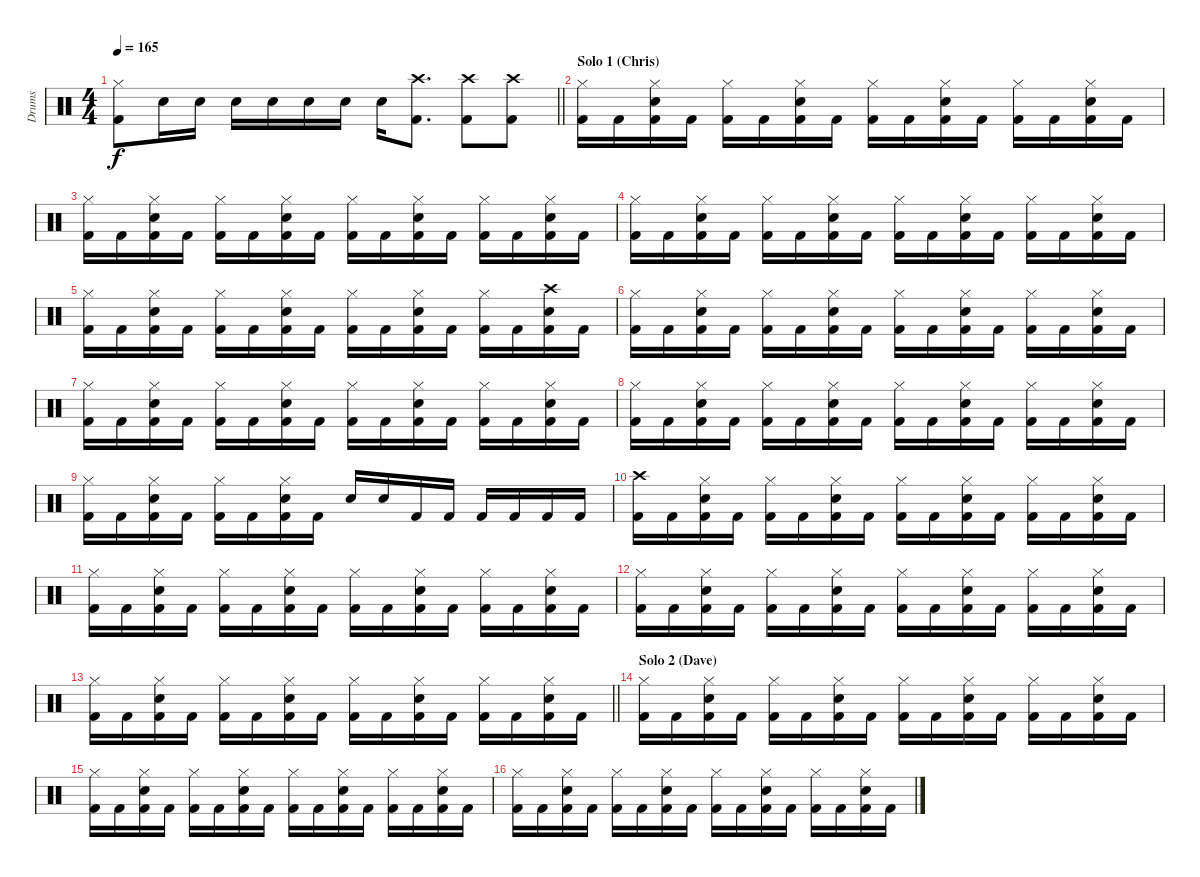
\track ("Drums" "Drums") {instrument percussion}
\staff {score}
\articulation defaults
\ts (4 4)
\tempo 165
\clef neutral
\barLineRight lightlight
\ks c
("Hi-Hat (closed)" "Kick (hit) 2").8{dy f} "Snare (hit) 2".16 "Snare (hit) 2".16 "Snare (hit) 2".16 "Snare (hit) 2".16 "Snare (hit) 2".16 "Snare (hit) 2".16 "Snare (hit) 2".16 ("Crash high (hit)" "Kick (hit) 2").8{d} ("Crash high (hit)" "Kick (hit) 2").8 ("Crash high (hit)" "Kick (hit) 2").8 |
\section ("" "Solo 1 (Chris)")
("Hi-Hat (closed)" "Kick (hit) 2").16 "Kick (hit) 2".16 ("Hi-Hat (closed)" "Snare (hit) 2" "Kick (hit) 2").16 "Kick (hit) 2".16 ("Hi-Hat (closed)" "Kick (hit) 2").16 "Kick (hit) 2".16 ("Hi-Hat (closed)" "Snare (hit) 2" "Kick (hit) 2").16 "Kick (hit) 2".16 ("Hi-Hat (closed)" "Kick (hit) 2").16 "Kick (hit) 2".16 ("Hi-Hat (closed)" "Snare (hit) 2" "Kick (hit) 2").16 "Kick (hit) 2".16 ("Hi-Hat (closed)" "Kick (hit) 2").16 "Kick (hit) 2".16 ("Hi-Hat (closed)" "Snare (hit) 2" "Kick (hit) 2").16 "Kick (hit) 2".16 |
("Hi-Hat (closed)" "Kick (hit) 2").16 "Kick (hit) 2".16 ("Hi-Hat (closed)" "Snare (hit) 2" "Kick (hit) 2").16 "Kick (hit) 2".16 ("Hi-Hat (closed)" "Kick (hit) 2").16 "Kick (hit) 2".16 ("Hi-Hat (closed)" "Snare (hit) 2" "Kick (hit) 2").16 "Kick (hit) 2".16 ("Hi-Hat (closed)" "Kick (hit) 2").16 "Kick (hit) 2".16 ("Hi-Hat (closed)" "Snare (hit) 2" "Kick (hit) 2").16 "Kick (hit) 2".16 ("Hi-Hat (closed)" "Kick (hit) 2").16 "Kick (hit) 2".16 ("Hi-Hat (closed)" "Snare (hit) 2" "Kick (hit) 2").16 "Kick (hit) 2".16 |
("Hi-Hat (closed)" "Kick (hit) 2").16 "Kick (hit) 2".16 ("Hi-Hat (closed)" "Snare (hit) 2" "Kick (hit) 2").16 "Kick (hit) 2".16 ("Hi-Hat (closed)" "Kick (hit) 2").16 "Kick (hit) 2".16 ("Hi-Hat (closed)" "Snare (hit) 2" "Kick (hit) 2").16 "Kick (hit) 2".16 ("Hi-Hat (closed)" "Kick (hit) 2").16 "Kick (hit) 2".16 ("Hi-Hat (closed)" "Snare (hit) 2" "Kick (hit) 2").16 "Kick (hit) 2".16 ("Hi-Hat (closed)" "Kick (hit) 2").16 "Kick (hit) 2".16 ("Hi-Hat (closed)" "Snare (hit) 2" "Kick (hit) 2").16 "Kick (hit) 2".16 |
("Hi-Hat (closed)" "Kick (hit) 2").16 "Kick (hit) 2".16 ("Hi-Hat (closed)" "Snare (hit) 2" "Kick (hit) 2").16 "Kick (hit) 2".16 ("Hi-Hat (closed)" "Kick (hit) 2").16 "Kick (hit) 2".16 ("Hi-Hat (closed)" "Snare (hit) 2" "Kick (hit) 2").16 "Kick (hit) 2".16 ("Hi-Hat (closed)" "Kick (hit) 2").16 "Kick (hit) 2".16 ("Hi-Hat (closed)" "Snare (hit) 2" "Kick (hit) 2").16 "Kick (hit) 2".16 ("Hi-Hat (closed)" "Kick (hit) 2").16 "Kick (hit) 2".16 ("Crash high (hit)" "Snare (hit) 2" "Kick (hit) 2").16 "Kick (hit) 2".16 |
("Hi-Hat (closed)" "Kick (hit) 2").16 "Kick (hit) 2".16 ("Hi-Hat (closed)" "Snare (hit) 2" "Kick (hit) 2").16 "Kick (hit) 2".16 ("Hi-Hat (closed)" "Kick (hit) 2").16 "Kick (hit) 2".16 ("Hi-Hat (closed)" "Snare (hit) 2" "Kick (hit) 2").16 "Kick (hit) 2".16 ("Hi-Hat (closed)" "Kick (hit) 2").16 "Kick (hit) 2".16 ("Hi-Hat (closed)" "Snare (hit) 2" "Kick (hit) 2").16 "Kick (hit) 2".16 ("Hi-Hat (closed)" "Kick (hit) 2").16 "Kick (hit) 2".16 ("Hi-Hat (closed)" "Snare (hit) 2" "Kick (hit) 2").16 "Kick (hit) 2".16 |
("Hi-Hat (closed)" "Kick (hit) 2").16 "Kick (hit) 2".16 ("Hi-Hat (closed)" "Snare (hit) 2" "Kick (hit) 2").16 "Kick (hit) 2".16 ("Hi-Hat (closed)" "Kick (hit) 2").16 "Kick (hit) 2".16 ("Hi-Hat (closed)" "Snare (hit) 2" "Kick (hit) 2").16 "Kick (hit) 2".16 ("Hi-Hat (closed)" "Kick (hit) 2").16 "Kick (hit) 2".16 ("Hi-Hat (closed)" "Snare (hit) 2" "Kick (hit) 2").16 "Kick (hit) 2".16 ("Hi-Hat (closed)" "Kick (hit) 2").16 "Kick (hit) 2".16 ("Hi-Hat (closed)" "Snare (hit) 2" "Kick (hit) 2").16 "Kick (hit) 2".16 |
("Hi-Hat (closed)" "Kick (hit) 2").16 "Kick (hit) 2".16 ("Hi-Hat (closed)" "Snare (hit) 2" "Kick (hit) 2").16 "Kick (hit) 2".16 ("Hi-Hat (closed)" "Kick (hit) 2").16 "Kick (hit) 2".16 ("Hi-Hat (closed)" "Snare (hit) 2" "Kick (hit) 2").16 "Kick (hit) 2".16 ("Hi-Hat (closed)" "Kick (hit) 2").16 "Kick (hit) 2".16 ("Hi-Hat (closed)" "Snare (hit) 2" "Kick (hit) 2").16 "Kick (hit) 2".16 ("Hi-Hat (closed)" "Kick (hit) 2").16 "Kick (hit) 2".16 ("Hi-Hat (closed)" "Snare (hit) 2" "Kick (hit) 2").16 "Kick (hit) 2".16 |
("Hi-Hat (closed)" "Kick (hit) 2").16 "Kick (hit) 2".16 ("Hi-Hat (closed)" "Snare (hit) 2" "Kick (hit) 2").16 "Kick (hit) 2".16 ("Hi-Hat (closed)" "Kick (hit) 2").16 "Kick (hit) 2".16 ("Hi-Hat (closed)" "Snare (hit) 2" "Kick (hit) 2").16 "Kick (hit) 2".16 "Snare (hit) 2".16 "Snare (hit) 2".16 "Kick (hit) 2".16 "Kick (hit) 2".16 "Kick (hit) 2".16 "Kick (hit) 2".16 "Kick (hit) 2".16 "Kick (hit) 2".16 |
("Crash high (hit)" "Kick (hit) 2").16 "Kick (hit) 2".16 ("Hi-Hat (closed)" "Snare (hit) 2" "Kick (hit) 2").16 "Kick (hit) 2".16 ("Hi-Hat (closed)" "Kick (hit) 2").16 "Kick (hit) 2".16 ("Hi-Hat (closed)" "Snare (hit) 2" "Kick (hit) 2").16 "Kick (hit) 2".16 ("Hi-Hat (closed)" "Kick (hit) 2").16 "Kick (hit) 2".16 ("Hi-Hat (closed)" "Snare (hit) 2" "Kick (hit) 2").16 "Kick (hit) 2".16 ("Hi-Hat (closed)" "Kick (hit) 2").16 "Kick (hit) 2".16 ("Hi-Hat (closed)" "Snare (hit) 2" "Kick (hit) 2").16 "Kick (hit) 2".16 |
("Hi-Hat (closed)" "Kick (hit) 2").16 "Kick (hit) 2".16 ("Hi-Hat (closed)" "Snare (hit) 2" "Kick (hit) 2").16 "Kick (hit) 2".16 ("Hi-Hat (closed)" "Kick (hit) 2").16 "Kick (hit) 2".16 ("Hi-Hat (closed)" "Snare (hit) 2" "Kick (hit) 2").16 "Kick (hit) 2".16 ("Hi-Hat (closed)" "Kick (hit) 2").16 "Kick (hit) 2".16 ("Hi-Hat (closed)" "Snare (hit) 2" "Kick (hit) 2").16 "Kick (hit) 2".16 ("Hi-Hat (closed)" "Kick (hit) 2").16 "Kick (hit) 2".16 ("Hi-Hat (closed)" "Snare (hit) 2" "Kick (hit) 2").16 "Kick (hit) 2".16 |
("Hi-Hat (closed)" "Kick (hit) 2").16 "Kick (hit) 2".16 ("Hi-Hat (closed)" "Snare (hit) 2" "Kick (hit) 2").16 "Kick (hit) 2".16 ("Hi-Hat (closed)" "Kick (hit) 2").16 "Kick (hit) 2".16 ("Hi-Hat (closed)" "Snare (hit) 2" "Kick (hit) 2").16 "Kick (hit) 2".16 ("Hi-Hat (closed)" "Kick (hit) 2").16 "Kick (hit) 2".16 ("Hi-Hat (closed)" "Snare (hit) 2" "Kick (hit) 2").16 "Kick (hit) 2".16 ("Hi-Hat (closed)" "Kick (hit) 2").16 "Kick (hit) 2".16 ("Hi-Hat (closed)" "Snare (hit) 2" "Kick (hit) 2").16 "Kick (hit) 2".16 |
\barLineRight lightlight
("Hi-Hat (closed)" "Kick (hit) 2").16 "Kick (hit) 2".16 ("Hi-Hat (closed)" "Snare (hit) 2" "Kick (hit) 2").16 "Kick (hit) 2".16 ("Hi-Hat (closed)" "Kick (hit) 2").16 "Kick (hit) 2".16 ("Hi-Hat (closed)" "Snare (hit) 2" "Kick (hit) 2").16 "Kick (hit) 2".16 ("Hi-Hat (closed)" "Kick (hit) 2").16 "Kick (hit) 2".16 ("Hi-Hat (closed)" "Snare (hit) 2" "Kick (hit) 2").16 "Kick (hit) 2".16 ("Hi-Hat (closed)" "Kick (hit) 2").16 "Kick (hit) 2".16 ("Hi-Hat (closed)" "Snare (hit) 2" "Kick (hit) 2").16 "Kick (hit) 2".16 |
\section ("" "Solo 2 (Dave)")
("Hi-Hat (closed)" "Kick (hit) 2").16 "Kick (hit) 2".16 ("Hi-Hat (closed)" "Snare (hit) 2" "Kick (hit) 2").16 "Kick (hit) 2".16 ("Hi-Hat (closed)" "Kick (hit) 2").16 "Kick (hit) 2".16 ("Hi-Hat (closed)" "Snare (hit) 2" "Kick (hit) 2").16 "Kick (hit) 2".16 ("Hi-Hat (closed)" "Kick (hit) 2").16 "Kick (hit) 2".16 ("Hi-Hat (closed)" "Snare (hit) 2" "Kick (hit) 2").16 "Kick (hit) 2".16 ("Hi-Hat (closed)" "Kick (hit) 2").16 "Kick (hit) 2".16 ("Hi-Hat (closed)" "Snare (hit) 2" "Kick (hit) 2").16 "Kick (hit) 2".16 |
("Hi-Hat (closed)" "Kick (hit) 2").16 "Kick (hit) 2".16 ("Hi-Hat (closed)" "Snare (hit) 2" "Kick (hit) 2").16 "Kick (hit) 2".16 ("Hi-Hat (closed)" "Kick (hit) 2").16 "Kick (hit) 2".16 ("Hi-Hat (closed)" "Snare (hit) 2" "Kick (hit) 2").16 "Kick (hit) 2".16 ("Hi-Hat (closed)" "Kick (hit) 2").16 "Kick (hit) 2".16 ("Hi-Hat (closed)" "Snare (hit) 2" "Kick (hit) 2").16 "Kick (hit) 2".16 ("Hi-Hat (closed)" "Kick (hit) 2").16 "Kick (hit) 2".16 ("Hi-Hat (closed)" "Snare (hit) 2" "Kick (hit) 2").16 "Kick (hit) 2".16 |
("Hi-Hat (closed)" "Kick (hit) 2").16 "Kick (hit) 2".16 ("Hi-Hat (closed)" "Snare (hit) 2" "Kick (hit) 2").16 "Kick (hit) 2".16 ("Hi-Hat (closed)" "Kick (hit) 2").16 "Kick (hit) 2".16 ("Hi-Hat (closed)" "Snare (hit) 2" "Kick (hit) 2").16 "Kick (hit) 2".16 ("Hi-Hat (closed)" "Kick (hit) 2").16 "Kick (hit) 2".16 ("Hi-Hat (closed)" "Snare (hit) 2" "Kick (hit) 2").16 "Kick (hit) 2".16 ("Hi-Hat (closed)" "Kick (hit) 2").16 "Kick (hit) 2".16 ("Hi-Hat (closed)" "Snare (hit) 2" "Kick (hit) 2").16 "Kick (hit) 2".16
